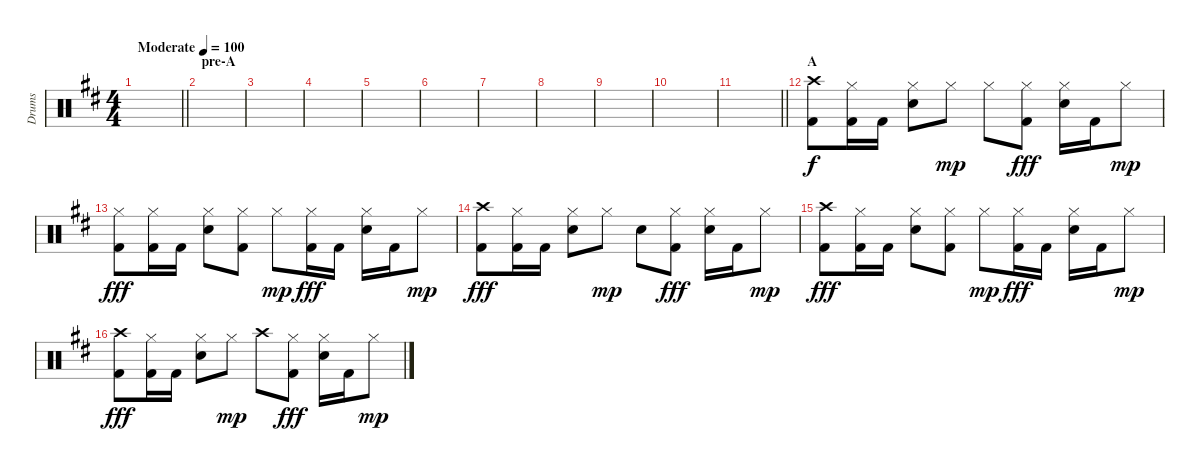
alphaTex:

\track ("Drums" "Drums") {instrument percussion}
\staff
\articulation defaults
\ts (4 4)
\tempo (100 "Moderate")
\clef neutral
\barLineRight lightlight
\ks bminor
|
\section ("" "pre-A")
|
|
|
|
|
|
|
|
|
\barLineRight lightlight
|
\section ("" "A")
("Crash high (hit)" "Kick (hit) 2").8 ("Hi-Hat (closed)" "Kick (hit) 2").16 "Kick (hit) 2".16 ("Hi-Hat (closed)" "Electric Snare (hit)").8 "Hi-Hat (closed)".8{dy mp} "Hi-Hat (closed)".8 ("Hi-Hat (closed)" "Kick (hit) 2").8{dy fff} ("Hi-Hat (closed)" "Electric Snare (hit)").16 "Kick (hit) 2".16 "Hi-Hat (closed)".8{dy mp} |
("Hi-Hat (closed)" "Kick (hit) 2").8{dy fff} ("Hi-Hat (closed)" "Kick (hit) 2").16 "Kick (hit) 2".16 ("Hi-Hat (closed)" "Electric Snare (hit)").8 ("Hi-Hat (closed)" "Kick (hit) 2").8 "Hi-Hat (closed)".8{dy mp} ("Hi-Hat (closed)" "Kick (hit) 2").16{dy fff} "Kick (hit) 2".16 ("Hi-Hat (closed)" "Electric Snare (hit)").16 "Kick (hit) 2".16 "Hi-Hat (closed)".8{dy mp} |
("Crash high (hit)" "Kick (hit) 2").8{dy fff} ("Hi-Hat (closed)" "Kick (hit) 2").16 "Kick (hit) 2".16 ("Hi-Hat (closed)" "Electric Snare (hit)").8 "Hi-Hat (closed)".8{dy mp} "Snare (hit)".8 ("Hi-Hat (closed)" "Kick (hit) 2").8{dy fff} ("Hi-Hat (closed)" "Electric Snare (hit)").16 "Kick (hit) 2".16 "Hi-Hat (closed)".8{dy mp} |
("Crash high (hit)" "Kick (hit) 2").8{dy fff} ("Hi-Hat (closed)" "Kick (hit) 2").16 "Kick (hit) 2".16 ("Hi-Hat (closed)" "Electric Snare (hit)").8 ("Hi-Hat (closed)" "Kick (hit) 2").8 "Hi-Hat (closed)".8{dy mp} ("Hi-Hat (closed)" "Kick (hit) 2").16{dy fff} "Kick (hit) 2".16 ("Hi-Hat (closed)" "Electric Snare (hit)").16 "Kick (hit) 2".16 "Hi-Hat (closed)".8{dy mp} |
("Crash high (hit)" "Kick (hit) 2").8{dy fff} ("Hi-Hat (closed)" "Kick (hit) 2").16 "Kick (hit) 2".16 ("Hi-Hat (closed)" "Electric Snare (hit)").8 "Hi-Hat (closed)".8{dy mp} "Crash high (hit)".8 ("Hi-Hat (closed)" "Kick (hit) 2").8{dy fff} ("Hi-Hat (closed)" "Electric Snare (hit)").16 "Kick (hit) 2".16 "Hi-Hat (closed)".8{dy mp}
